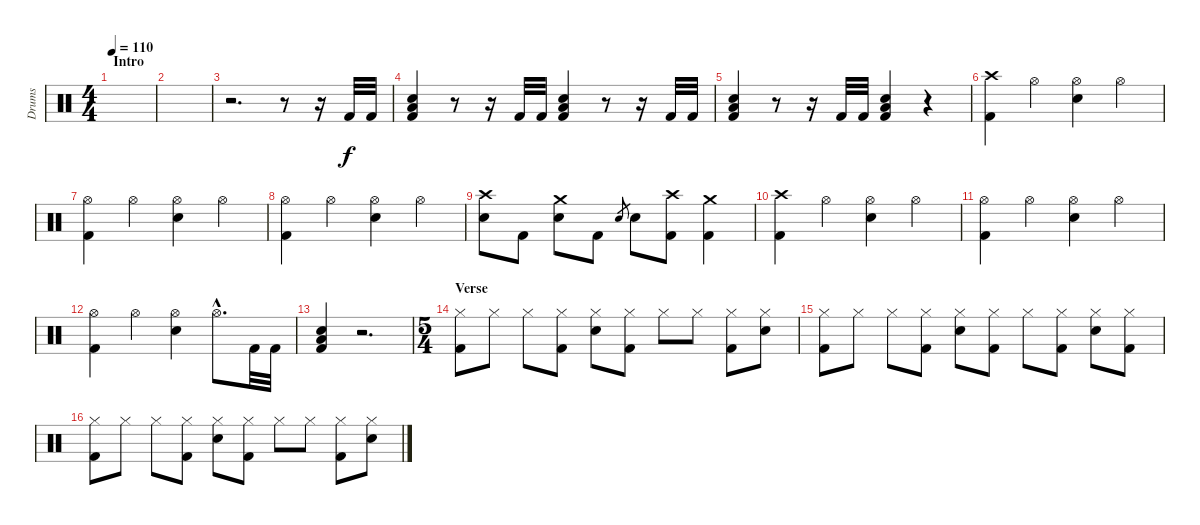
\track ("Drums" "Drums") {instrument percussion}
\staff {score}
\articulation defaults
\ts (4 4)
\section ("" "Intro")
\tempo 110
\clef neutral
\ks c
|
|
r.2{d} r.8 r.16 "Kick (hit) 2".32 "Kick (hit) 2".32 |
("Electric Snare (hit)" "Low Floor Tom (hit)" "Kick (hit) 2").4 r.8 r.16 "Kick (hit) 2".32 "Kick (hit) 2".32 ("Electric Snare (hit)" "Low Floor Tom (hit)" "Kick (hit) 2").4 r.8 r.16 "Kick (hit) 2".32 "Kick (hit) 2".32 |
("Electric Snare (hit)" "Low Floor Tom (hit)" "Kick (hit) 2").4 r.8 r.16 "Kick (hit) 2".32 "Kick (hit) 2".32 ("Electric Snare (hit)" "Low Floor Tom (hit)" "Kick (hit) 2").4 r.4 |
("Crash high (hit)" "Kick (hit) 2").4 "Hi-Hat (open)".4 ("Hi-Hat (open)" "Electric Snare (hit)").4 "Hi-Hat (open)".4 |
("Hi-Hat (open)" "Kick (hit) 2").4 "Hi-Hat (open)".4 ("Hi-Hat (open)" "Electric Snare (hit)").4 "Hi-Hat (open)".4 |
("Hi-Hat (open)" "Kick (hit) 2").4 "Hi-Hat (open)".4 ("Hi-Hat (open)" "Electric Snare (hit)").4 "Hi-Hat (open)".4 |
("Crash high (hit)" "Electric Snare (hit)").8 "Kick (hit) 2".8 ("Crash medium (hit)" "Electric Snare (hit)").8 "Kick (hit) 2".8 "Electric Snare (hit)".8{gr} "Electric Snare (hit)".8 ("Crash high (hit)" "Kick (hit) 2").8 ("Crash medium (hit)" "Kick (hit) 2").4 |
("Crash high (hit)" "Kick (hit) 2").4 "Hi-Hat (open)".4 ("Hi-Hat (open)" "Electric Snare (hit)").4 "Hi-Hat (open)".4 |
("Hi-Hat (open)" "Kick (hit) 2").4 "Hi-Hat (open)".4 ("Hi-Hat (open)" "Electric Snare (hit)").4 "Hi-Hat (open)".4 |
("Hi-Hat (open)" "Kick (hit) 2").4 "Hi-Hat (open)".4 ("Hi-Hat (open)" "Electric Snare (hit)").4 "Hi-Hat (open)"{hac}.8{d} "Kick (hit) 2".32 "Kick (hit) 2".32 |
("Electric Snare (hit)" "Low Floor Tom (hit)" "Kick (hit) 2").4 r.2{d} |
\ts (5 4)
\section ("" "Verse")
("Hi-Hat (closed)" "Kick (hit) 2").8 "Hi-Hat (closed)".8 "Hi-Hat (closed)".8 ("Hi-Hat (closed)" "Kick (hit) 2").8 ("Hi-Hat (closed)" "Electric Snare (hit)").8 ("Hi-Hat (closed)" "Kick (hit) 2").8 "Hi-Hat (closed)".8 "Hi-Hat (closed)".8 ("Hi-Hat (closed)" "Kick (hit) 2").8 ("Hi-Hat (closed)" "Electric Snare (hit)").8 |
("Hi-Hat (closed)" "Kick (hit) 2").8 "Hi-Hat (closed)".8 "Hi-Hat (closed)".8 ("Hi-Hat (closed)" "Kick (hit) 2").8 ("Hi-Hat (closed)" "Electric Snare (hit)").8 ("Hi-Hat (closed)" "Kick (hit) 2").8 "Hi-Hat (closed)".8 ("Hi-Hat (closed)" "Kick (hit) 2").8 ("Hi-Hat (closed)" "Electric Snare (hit)").8 ("Hi-Hat (closed)" "Kick (hit) 2").8 |
("Hi-Hat (closed)" "Kick (hit) 2").8 "Hi-Hat (closed)".8 "Hi-Hat (closed)".8 ("Hi-Hat (closed)" "Kick (hit) 2").8 ("Hi-Hat (closed)" "Electric Snare (hit)").8 ("Hi-Hat (closed)" "Kick (hit) 2").8 "Hi-Hat (closed)".8 "Hi-Hat (closed)".8 ("Hi-Hat (closed)" "Kick (hit) 2").8 ("Hi-Hat (closed)" "Electric Snare (hit)").8
